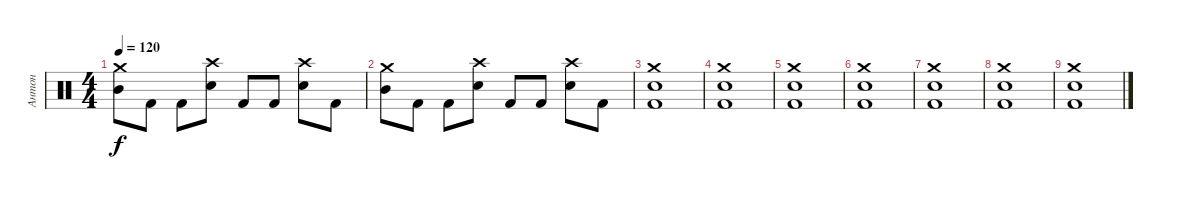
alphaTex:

\track ("Антон" "Антон") {instrument percussion}
\staff {score}
\articulation defaults
\ts (4 4)
\tempo 120
\clef neutral
\ks c
("Crash medium (hit)" "Mid Tom (hit)").8{dy f} "Kick (hit) 2".8 "Kick (hit) 2".8 ("Crash high (hit)" "Electric Snare (hit)").8 "Kick (hit) 2".8 "Kick (hit) 2".8 ("Crash high (hit)" "Electric Snare (hit)").8 "Kick (hit) 2".8 |
("Crash medium (hit)" "Mid Tom (hit)").8 "Kick (hit) 2".8 "Kick (hit) 2".8 ("Crash high (hit)" "Electric Snare (hit)").8 "Kick (hit) 2".8 "Kick (hit) 2".8 ("Crash high (hit)" "Electric Snare (hit)").8 "Kick (hit) 2".8 |
("Crash medium (hit)" "Electric Snare (hit)" "Kick (hit) 2").1 |
("Crash medium (hit)" "Electric Snare (hit)" "Kick (hit) 2").1 |
("Crash medium (hit)" "Electric Snare (hit)" "Kick (hit) 2").1 |
("Crash medium (hit)" "Electric Snare (hit)" "Kick (hit) 2").1 |
("Crash medium (hit)" "Electric Snare (hit)" "Kick (hit) 2").1 |
("Crash medium (hit)" "Electric Snare (hit)" "Kick (hit) 2").1 |
("Crash medium (hit)" "Electric Snare (hit)" "Kick (hit) 2").1
